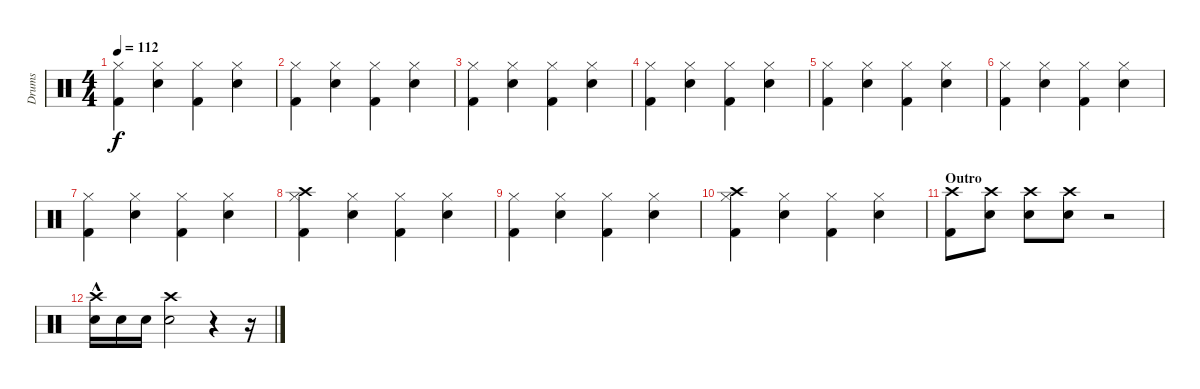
\track ("Drums" "Drums") {instrument percussion}
\staff {score}
\articulation defaults
\ts (4 4)
\tempo 112
\clef neutral
\ks c
("Kick (hit) 2" "Hi-Hat (closed)").4{dy f} ("Hi-Hat (closed)" "Electric Snare (hit)").4 ("Kick (hit) 2" "Hi-Hat (closed)").4 ("Hi-Hat (closed)" "Electric Snare (hit)").4 |
("Kick (hit) 2" "Hi-Hat (closed)").4 ("Hi-Hat (closed)" "Electric Snare (hit)").4 ("Kick (hit) 2" "Hi-Hat (closed)").4 ("Hi-Hat (closed)" "Electric Snare (hit)").4 |
("Kick (hit) 2" "Hi-Hat (closed)").4 ("Hi-Hat (closed)" "Electric Snare (hit)").4 ("Kick (hit) 2" "Hi-Hat (closed)").4 ("Hi-Hat (closed)" "Electric Snare (hit)").4 |
("Kick (hit) 2" "Hi-Hat (closed)").4 ("Hi-Hat (closed)" "Electric Snare (hit)").4 ("Kick (hit) 2" "Hi-Hat (closed)").4 ("Hi-Hat (closed)" "Electric Snare (hit)").4 |
("Kick (hit) 2" "Hi-Hat (closed)").4 ("Hi-Hat (closed)" "Electric Snare (hit)").4 ("Kick (hit) 2" "Hi-Hat (closed)").4 ("Hi-Hat (closed)" "Electric Snare (hit)").4 |
("Kick (hit) 2" "Hi-Hat (closed)").4 ("Hi-Hat (closed)" "Electric Snare (hit)").4 ("Kick (hit) 2" "Hi-Hat (closed)").4 ("Hi-Hat (closed)" "Electric Snare (hit)").4 |
("Kick (hit) 2" "Hi-Hat (closed)").4 ("Hi-Hat (closed)" "Electric Snare (hit)").4 ("Kick (hit) 2" "Hi-Hat (closed)").4 ("Hi-Hat (closed)" "Electric Snare (hit)").4 |
("Kick (hit) 2" "Hi-Hat (closed)" "Crash high (hit)").4 ("Hi-Hat (closed)" "Electric Snare (hit)").4 ("Kick (hit) 2" "Hi-Hat (closed)").4 ("Hi-Hat (closed)" "Electric Snare (hit)").4 |
("Kick (hit) 2" "Hi-Hat (closed)").4 ("Hi-Hat (closed)" "Electric Snare (hit)").4 ("Kick (hit) 2" "Hi-Hat (closed)").4 ("Hi-Hat (closed)" "Electric Snare (hit)").4 |
("Kick (hit) 2" "Hi-Hat (closed)" "Crash high (hit)").4 ("Hi-Hat (closed)" "Electric Snare (hit)").4 ("Kick (hit) 2" "Hi-Hat (closed)").4 ("Hi-Hat (closed)" "Electric Snare (hit)").4 |
\section ("" "Outro")
("Kick (hit) 2" "Crash high (hit)").8 ("Crash high (hit)" "Electric Snare (hit)").8 ("Electric Snare (hit)" "Crash high (hit)").8 ("Crash high (hit)" "Electric Snare (hit)").8 r.2 |
("Crash high (hit)"{hac} "Electric Snare (hit)").16 "Electric Snare (hit)".16 "Electric Snare (hit)".16 ("Crash high (hit)" "Electric Snare (hit)").2 r.4 r.16
